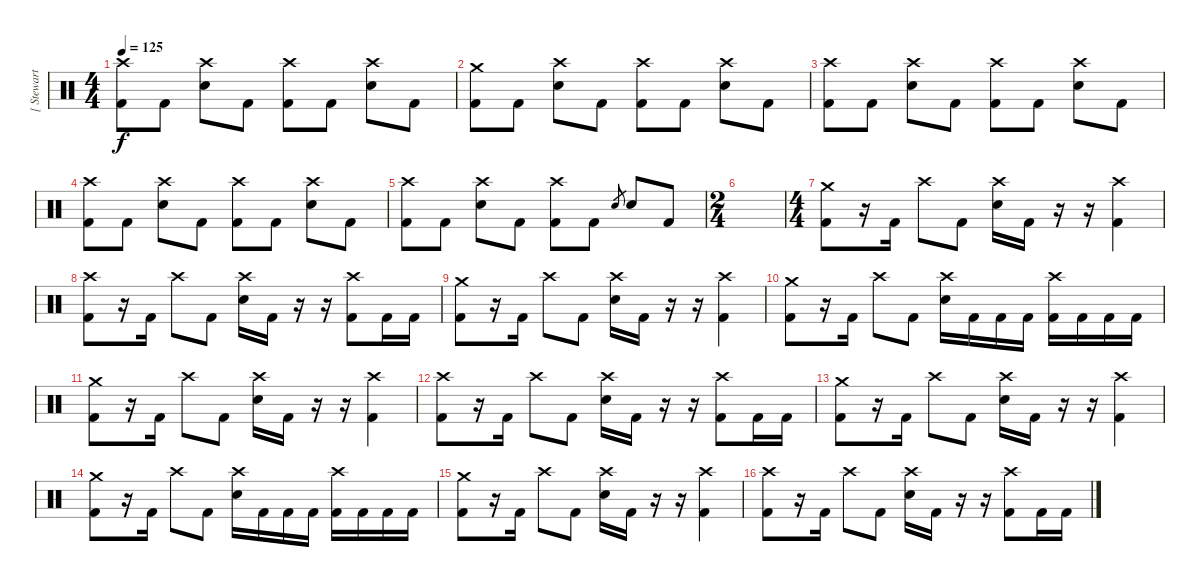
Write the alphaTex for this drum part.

\track ("[ Stewart ]" "[ Stewart ") {instrument percussion}
\staff {score}
\articulation defaults
\ts (4 4)
\tempo 125
\clef neutral
\ks c
("Kick (hit) 2" "Crash high (hit)").8{dy f} "Kick (hit) 2".8 ("Electric Snare (hit)" "Crash high (hit)").8 "Kick (hit) 2".8 ("Kick (hit) 2" "Crash high (hit)").8 "Kick (hit) 2".8 ("Electric Snare (hit)" "Crash high (hit)").8 "Kick (hit) 2".8 |
("Kick (hit) 2" "Crash medium (hit)").8 "Kick (hit) 2".8 ("Electric Snare (hit)" "Crash high (hit)").8 "Kick (hit) 2".8 ("Kick (hit) 2" "Crash high (hit)").8 "Kick (hit) 2".8 ("Electric Snare (hit)" "Crash high (hit)").8 "Kick (hit) 2".8 |
("Kick (hit) 2" "Crash high (hit)").8 "Kick (hit) 2".8 ("Electric Snare (hit)" "Crash high (hit)").8 "Kick (hit) 2".8 ("Kick (hit) 2" "Crash high (hit)").8 "Kick (hit) 2".8 ("Electric Snare (hit)" "Crash high (hit)").8 "Kick (hit) 2".8 |
("Kick (hit) 2" "Crash high (hit)").8 "Kick (hit) 2".8 ("Electric Snare (hit)" "Crash high (hit)").8 "Kick (hit) 2".8 ("Kick (hit) 2" "Crash high (hit)").8 "Kick (hit) 2".8 ("Electric Snare (hit)" "Crash high (hit)").8 "Kick (hit) 2".8 |
("Kick (hit) 2" "Crash high (hit)").8 "Kick (hit) 2".8 ("Electric Snare (hit)" "Crash high (hit)").8 "Kick (hit) 2".8 ("Kick (hit) 2" "Crash high (hit)").8 "Kick (hit) 2".8 "Electric Snare (hit)".8{gr} "Electric Snare (hit)".8 "Kick (hit) 2".8 |
\ts (2 4)
|
\ts (4 4)
("Kick (hit) 2" "Crash medium (hit)").8 r.16 "Kick (hit) 2".16 "Crash high (hit)".8 "Kick (hit) 2".8 ("Electric Snare (hit)" "Crash high (hit)").16 "Kick (hit) 2".16 r.16 r.16 ("Kick (hit) 2" "Crash high (hit)").4 |
("Kick (hit) 2" "Crash high (hit)").8 r.16 "Kick (hit) 2".16 "Crash high (hit)".8 "Kick (hit) 2".8 ("Electric Snare (hit)" "Crash high (hit)").16 "Kick (hit) 2".16 r.16 r.16 ("Kick (hit) 2" "Crash high (hit)").8 "Kick (hit) 2".16 "Kick (hit) 2".16 |
("Kick (hit) 2" "Crash medium (hit)").8 r.16 "Kick (hit) 2".16 "Crash high (hit)".8 "Kick (hit) 2".8 ("Electric Snare (hit)" "Crash high (hit)").16 "Kick (hit) 2".16 r.16 r.16 ("Kick (hit) 2" "Crash high (hit)").4 |
("Kick (hit) 2" "Crash medium (hit)").8 r.16 "Kick (hit) 2".16 "Crash high (hit)".8 "Kick (hit) 2".8 ("Electric Snare (hit)" "Crash high (hit)").16 "Kick (hit) 2".16 "Kick (hit) 2".16 "Kick (hit) 2".16 ("Kick (hit) 2" "Crash high (hit)").16 "Kick (hit) 2".16 "Kick (hit) 2".16 "Kick (hit) 2".16 |
("Kick (hit) 2" "Crash medium (hit)").8 r.16 "Kick (hit) 2".16 "Crash high (hit)".8 "Kick (hit) 2".8 ("Electric Snare (hit)" "Crash high (hit)").16 "Kick (hit) 2".16 r.16 r.16 ("Kick (hit) 2" "Crash high (hit)").4 |
("Kick (hit) 2" "Crash high (hit)").8 r.16 "Kick (hit) 2".16 "Crash high (hit)".8 "Kick (hit) 2".8 ("Electric Snare (hit)" "Crash high (hit)").16 "Kick (hit) 2".16 r.16 r.16 ("Kick (hit) 2" "Crash high (hit)").8 "Kick (hit) 2".16 "Kick (hit) 2".16 |
("Kick (hit) 2" "Crash medium (hit)").8 r.16 "Kick (hit) 2".16 "Crash high (hit)".8 "Kick (hit) 2".8 ("Electric Snare (hit)" "Crash high (hit)").16 "Kick (hit) 2".16 r.16 r.16 ("Kick (hit) 2" "Crash high (hit)").4 |
("Kick (hit) 2" "Crash medium (hit)").8 r.16 "Kick (hit) 2".16 "Crash high (hit)".8 "Kick (hit) 2".8 ("Electric Snare (hit)" "Crash high (hit)").16 "Kick (hit) 2".16 "Kick (hit) 2".16 "Kick (hit) 2".16 ("Kick (hit) 2" "Crash high (hit)").16 "Kick (hit) 2".16 "Kick (hit) 2".16 "Kick (hit) 2".16 |
("Kick (hit) 2" "Crash medium (hit)").8 r.16 "Kick (hit) 2".16 "Crash high (hit)".8 "Kick (hit) 2".8 ("Electric Snare (hit)" "Crash high (hit)").16 "Kick (hit) 2".16 r.16 r.16 ("Kick (hit) 2" "Crash high (hit)").4 |
("Kick (hit) 2" "Crash high (hit)").8 r.16 "Kick (hit) 2".16 "Crash high (hit)".8 "Kick (hit) 2".8 ("Electric Snare (hit)" "Crash high (hit)").16 "Kick (hit) 2".16 r.16 r.16 ("Kick (hit) 2" "Crash high (hit)").8 "Kick (hit) 2".16 "Kick (hit) 2".16
